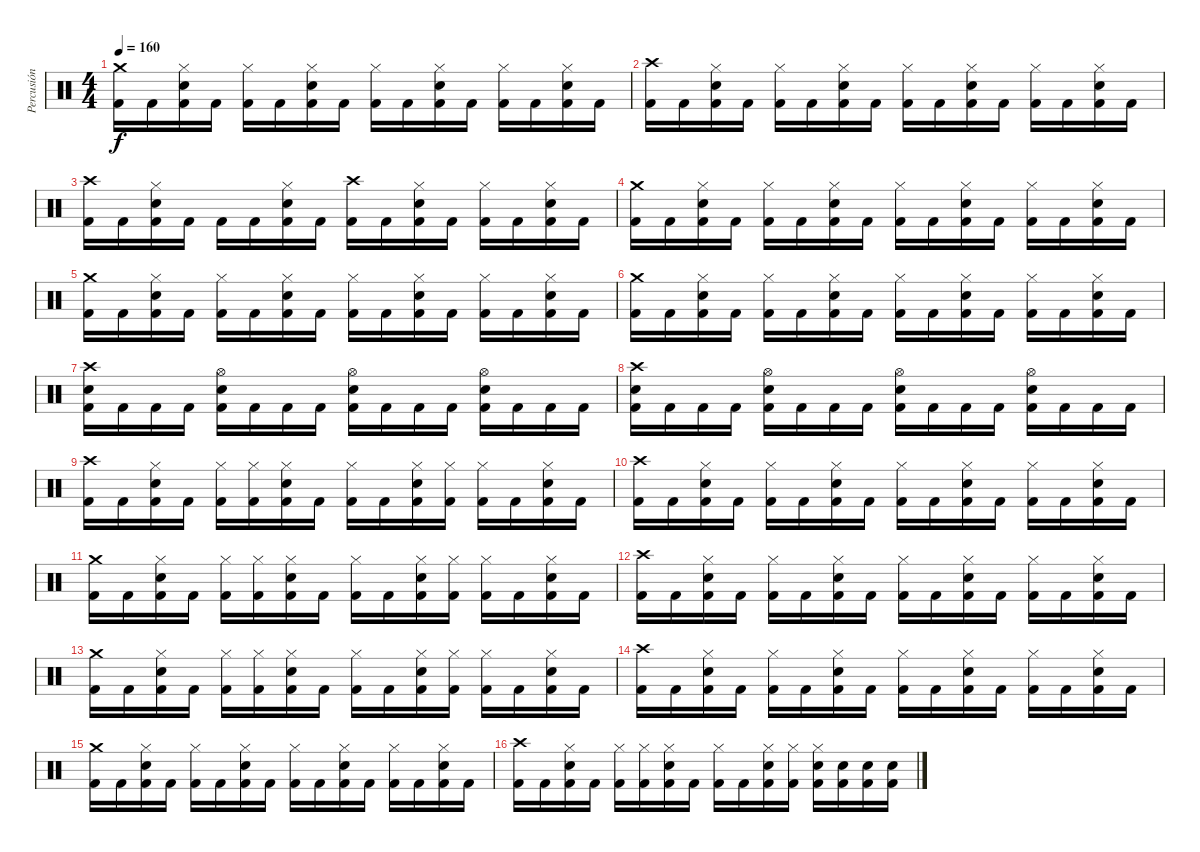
\track ("Percusión" "Percusión") {instrument percussion}
\staff {score}
\articulation defaults
\ts (4 4)
\tempo 160
\clef neutral
\ks c
("Kick (hit) 2" "Crash medium (hit)").16{dy f} "Kick (hit) 2".16 ("Kick (hit) 2" "Snare (hit) 2" "Hi-Hat (closed)").16 "Kick (hit) 2".16 ("Kick (hit) 2" "Hi-Hat (closed)").16 "Kick (hit) 2".16 ("Kick (hit) 2" "Snare (hit) 2" "Hi-Hat (closed)").16 "Kick (hit) 2".16 ("Kick (hit) 2" "Hi-Hat (closed)").16 "Kick (hit) 2".16 ("Kick (hit) 2" "Snare (hit) 2" "Hi-Hat (closed)").16 "Kick (hit) 2".16 ("Kick (hit) 2" "Hi-Hat (closed)").16 "Kick (hit) 2".16 ("Kick (hit) 2" "Snare (hit) 2" "Hi-Hat (closed)").16 "Kick (hit) 2".16 |
("Kick (hit) 2" "Crash high (hit)").16 "Kick (hit) 2".16 ("Kick (hit) 2" "Snare (hit) 2" "Hi-Hat (closed)").16 "Kick (hit) 2".16 ("Kick (hit) 2" "Hi-Hat (closed)").16 "Kick (hit) 2".16 ("Kick (hit) 2" "Snare (hit) 2" "Hi-Hat (closed)").16 "Kick (hit) 2".16 ("Kick (hit) 2" "Hi-Hat (closed)").16 "Kick (hit) 2".16 ("Kick (hit) 2" "Snare (hit) 2" "Hi-Hat (closed)").16 "Kick (hit) 2".16 ("Kick (hit) 2" "Hi-Hat (closed)").16 "Kick (hit) 2".16 ("Kick (hit) 2" "Snare (hit) 2" "Hi-Hat (closed)").16 "Kick (hit) 2".16 |
("Kick (hit) 2" "Crash high (hit)").16 "Kick (hit) 2".16 ("Kick (hit) 2" "Snare (hit) 2" "Hi-Hat (closed)").16 "Kick (hit) 2".16 "Kick (hit) 2".16 "Kick (hit) 2".16 ("Kick (hit) 2" "Snare (hit) 2" "Hi-Hat (closed)").16 "Kick (hit) 2".16 ("Kick (hit) 2" "Crash high (hit)").16 "Kick (hit) 2".16 ("Kick (hit) 2" "Snare (hit) 2" "Hi-Hat (closed)").16 "Kick (hit) 2".16 ("Kick (hit) 2" "Hi-Hat (closed)").16 "Kick (hit) 2".16 ("Kick (hit) 2" "Snare (hit) 2" "Hi-Hat (closed)").16 "Kick (hit) 2".16 |
("Kick (hit) 2" "Crash medium (hit)").16 "Kick (hit) 2".16 ("Kick (hit) 2" "Snare (hit) 2" "Hi-Hat (closed)").16 "Kick (hit) 2".16 ("Kick (hit) 2" "Hi-Hat (closed)").16 "Kick (hit) 2".16 ("Kick (hit) 2" "Snare (hit) 2" "Hi-Hat (closed)").16 "Kick (hit) 2".16 ("Kick (hit) 2" "Hi-Hat (closed)").16 "Kick (hit) 2".16 ("Kick (hit) 2" "Snare (hit) 2" "Hi-Hat (closed)").16 "Kick (hit) 2".16 ("Kick (hit) 2" "Hi-Hat (closed)").16 "Kick (hit) 2".16 ("Kick (hit) 2" "Snare (hit) 2" "Hi-Hat (closed)").16 "Kick (hit) 2".16 |
("Kick (hit) 2" "Crash medium (hit)").16 "Kick (hit) 2".16 ("Kick (hit) 2" "Snare (hit) 2" "Hi-Hat (closed)").16 "Kick (hit) 2".16 ("Kick (hit) 2" "Hi-Hat (closed)").16 "Kick (hit) 2".16 ("Kick (hit) 2" "Snare (hit) 2" "Hi-Hat (closed)").16 "Kick (hit) 2".16 ("Kick (hit) 2" "Hi-Hat (closed)").16 "Kick (hit) 2".16 ("Kick (hit) 2" "Snare (hit) 2" "Hi-Hat (closed)").16 "Kick (hit) 2".16 ("Kick (hit) 2" "Hi-Hat (closed)").16 "Kick (hit) 2".16 ("Kick (hit) 2" "Snare (hit) 2" "Hi-Hat (closed)").16 "Kick (hit) 2".16 |
("Kick (hit) 2" "Crash medium (hit)").16 "Kick (hit) 2".16 ("Kick (hit) 2" "Snare (hit) 2" "Hi-Hat (closed)").16 "Kick (hit) 2".16 ("Kick (hit) 2" "Hi-Hat (closed)").16 "Kick (hit) 2".16 ("Kick (hit) 2" "Snare (hit) 2" "Hi-Hat (closed)").16 "Kick (hit) 2".16 ("Kick (hit) 2" "Hi-Hat (closed)").16 "Kick (hit) 2".16 ("Kick (hit) 2" "Snare (hit) 2" "Hi-Hat (closed)").16 "Kick (hit) 2".16 ("Kick (hit) 2" "Hi-Hat (closed)").16 "Kick (hit) 2".16 ("Kick (hit) 2" "Snare (hit) 2" "Hi-Hat (closed)").16 "Kick (hit) 2".16 |
("Kick (hit) 2" "Snare (hit) 2" "Crash high (hit)").16 "Kick (hit) 2".16 "Kick (hit) 2".16 "Kick (hit) 2".16 ("Kick (hit) 2" "Snare (hit) 2" "Hi-Hat (open)").16 "Kick (hit) 2".16 "Kick (hit) 2".16 "Kick (hit) 2".16 ("Kick (hit) 2" "Snare (hit) 2" "Hi-Hat (open)").16 "Kick (hit) 2".16 "Kick (hit) 2".16 "Kick (hit) 2".16 ("Kick (hit) 2" "Snare (hit) 2" "Hi-Hat (open)").16 "Kick (hit) 2".16 "Kick (hit) 2".16 "Kick (hit) 2".16 |
("Kick (hit) 2" "Snare (hit) 2" "Crash high (hit)").16 "Kick (hit) 2".16 "Kick (hit) 2".16 "Kick (hit) 2".16 ("Kick (hit) 2" "Snare (hit) 2" "Hi-Hat (open)").16 "Kick (hit) 2".16 "Kick (hit) 2".16 "Kick (hit) 2".16 ("Kick (hit) 2" "Snare (hit) 2" "Hi-Hat (open)").16 "Kick (hit) 2".16 "Kick (hit) 2".16 "Kick (hit) 2".16 ("Kick (hit) 2" "Snare (hit) 2" "Hi-Hat (open)").16 "Kick (hit) 2".16 "Kick (hit) 2".16 "Kick (hit) 2".16 |
("Kick (hit) 2" "Crash high (hit)").16 "Kick (hit) 2".16 ("Kick (hit) 2" "Snare (hit) 2" "Hi-Hat (closed)").16 "Kick (hit) 2".16 ("Kick (hit) 2" "Hi-Hat (closed)").16 ("Kick (hit) 2" "Hi-Hat (closed)").16 ("Kick (hit) 2" "Snare (hit) 2" "Hi-Hat (closed)").16 "Kick (hit) 2".16 ("Kick (hit) 2" "Hi-Hat (closed)").16 "Kick (hit) 2".16 ("Kick (hit) 2" "Snare (hit) 2" "Hi-Hat (closed)").16 ("Kick (hit) 2" "Hi-Hat (closed)").16 ("Kick (hit) 2" "Hi-Hat (closed)").16 "Kick (hit) 2".16 ("Kick (hit) 2" "Snare (hit) 2" "Hi-Hat (closed)").16 "Kick (hit) 2".16 |
("Kick (hit) 2" "Crash high (hit)").16 "Kick (hit) 2".16 ("Kick (hit) 2" "Snare (hit) 2" "Hi-Hat (closed)").16 "Kick (hit) 2".16 ("Kick (hit) 2" "Hi-Hat (closed)").16 "Kick (hit) 2".16 ("Kick (hit) 2" "Snare (hit) 2" "Hi-Hat (closed)").16 "Kick (hit) 2".16 ("Kick (hit) 2" "Hi-Hat (closed)").16 "Kick (hit) 2".16 ("Kick (hit) 2" "Snare (hit) 2" "Hi-Hat (closed)").16 "Kick (hit) 2".16 ("Kick (hit) 2" "Hi-Hat (closed)").16 "Kick (hit) 2".16 ("Kick (hit) 2" "Snare (hit) 2" "Hi-Hat (closed)").16 "Kick (hit) 2".16 |
("Kick (hit) 2" "Crash medium (hit)").16 "Kick (hit) 2".16 ("Kick (hit) 2" "Snare (hit) 2" "Hi-Hat (closed)").16 "Kick (hit) 2".16 ("Kick (hit) 2" "Hi-Hat (closed)").16 ("Kick (hit) 2" "Hi-Hat (closed)").16 ("Kick (hit) 2" "Snare (hit) 2" "Hi-Hat (closed)").16 "Kick (hit) 2".16 ("Kick (hit) 2" "Hi-Hat (closed)").16 "Kick (hit) 2".16 ("Kick (hit) 2" "Snare (hit) 2" "Hi-Hat (closed)").16 ("Kick (hit) 2" "Hi-Hat (closed)").16 ("Kick (hit) 2" "Hi-Hat (closed)").16 "Kick (hit) 2".16 ("Kick (hit) 2" "Snare (hit) 2" "Hi-Hat (closed)").16 "Kick (hit) 2".16 |
("Kick (hit) 2" "Crash high (hit)").16 "Kick (hit) 2".16 ("Kick (hit) 2" "Snare (hit) 2" "Hi-Hat (closed)").16 "Kick (hit) 2".16 ("Kick (hit) 2" "Hi-Hat (closed)").16 "Kick (hit) 2".16 ("Kick (hit) 2" "Snare (hit) 2" "Hi-Hat (closed)").16 "Kick (hit) 2".16 ("Kick (hit) 2" "Hi-Hat (closed)").16 "Kick (hit) 2".16 ("Kick (hit) 2" "Snare (hit) 2" "Hi-Hat (closed)").16 "Kick (hit) 2".16 ("Kick (hit) 2" "Hi-Hat (closed)").16 "Kick (hit) 2".16 ("Kick (hit) 2" "Snare (hit) 2" "Hi-Hat (closed)").16 "Kick (hit) 2".16 |
("Kick (hit) 2" "Crash medium (hit)").16 "Kick (hit) 2".16 ("Kick (hit) 2" "Snare (hit) 2" "Hi-Hat (closed)").16 "Kick (hit) 2".16 ("Kick (hit) 2" "Hi-Hat (closed)").16 ("Kick (hit) 2" "Hi-Hat (closed)").16 ("Kick (hit) 2" "Snare (hit) 2" "Hi-Hat (closed)").16 "Kick (hit) 2".16 ("Kick (hit) 2" "Hi-Hat (closed)").16 "Kick (hit) 2".16 ("Kick (hit) 2" "Snare (hit) 2" "Hi-Hat (closed)").16 ("Kick (hit) 2" "Hi-Hat (closed)").16 ("Kick (hit) 2" "Hi-Hat (closed)").16 "Kick (hit) 2".16 ("Kick (hit) 2" "Snare (hit) 2" "Hi-Hat (closed)").16 "Kick (hit) 2".16 |
("Kick (hit) 2" "Crash high (hit)").16 "Kick (hit) 2".16 ("Kick (hit) 2" "Snare (hit) 2" "Hi-Hat (closed)").16 "Kick (hit) 2".16 ("Kick (hit) 2" "Hi-Hat (closed)").16 "Kick (hit) 2".16 ("Kick (hit) 2" "Snare (hit) 2" "Hi-Hat (closed)").16 "Kick (hit) 2".16 ("Kick (hit) 2" "Hi-Hat (closed)").16 "Kick (hit) 2".16 ("Kick (hit) 2" "Snare (hit) 2" "Hi-Hat (closed)").16 "Kick (hit) 2".16 ("Kick (hit) 2" "Hi-Hat (closed)").16 "Kick (hit) 2".16 ("Kick (hit) 2" "Snare (hit) 2" "Hi-Hat (closed)").16 "Kick (hit) 2".16 |
("Kick (hit) 2" "Crash medium (hit)").16 "Kick (hit) 2".16 ("Kick (hit) 2" "Snare (hit) 2" "Hi-Hat (closed)").16 "Kick (hit) 2".16 ("Kick (hit) 2" "Hi-Hat (closed)").16 "Kick (hit) 2".16 ("Kick (hit) 2" "Snare (hit) 2" "Hi-Hat (closed)").16 "Kick (hit) 2".16 ("Kick (hit) 2" "Hi-Hat (closed)").16 "Kick (hit) 2".16 ("Kick (hit) 2" "Snare (hit) 2" "Hi-Hat (closed)").16 "Kick (hit) 2".16 ("Kick (hit) 2" "Hi-Hat (closed)").16 "Kick (hit) 2".16 ("Kick (hit) 2" "Snare (hit) 2" "Hi-Hat (closed)").16 "Kick (hit) 2".16 |
("Kick (hit) 2" "Crash high (hit)").16 "Kick (hit) 2".16 ("Kick (hit) 2" "Snare (hit) 2" "Hi-Hat (closed)").16 "Kick (hit) 2".16 ("Kick (hit) 2" "Hi-Hat (closed)").16 ("Kick (hit) 2" "Hi-Hat (closed)").16 ("Kick (hit) 2" "Snare (hit) 2" "Hi-Hat (closed)").16 "Kick (hit) 2".16 ("Kick (hit) 2" "Hi-Hat (closed)").16 "Kick (hit) 2".16 ("Kick (hit) 2" "Snare (hit) 2" "Hi-Hat (closed)").16 ("Kick (hit) 2" "Hi-Hat (closed)").16 ("Kick (hit) 2" "Snare (hit) 2" "Hi-Hat (closed)").16 ("Kick (hit) 2" "Snare (hit) 2").16 ("Kick (hit) 2" "Snare (hit) 2").16 ("Kick (hit) 2" "Snare (hit) 2").16
